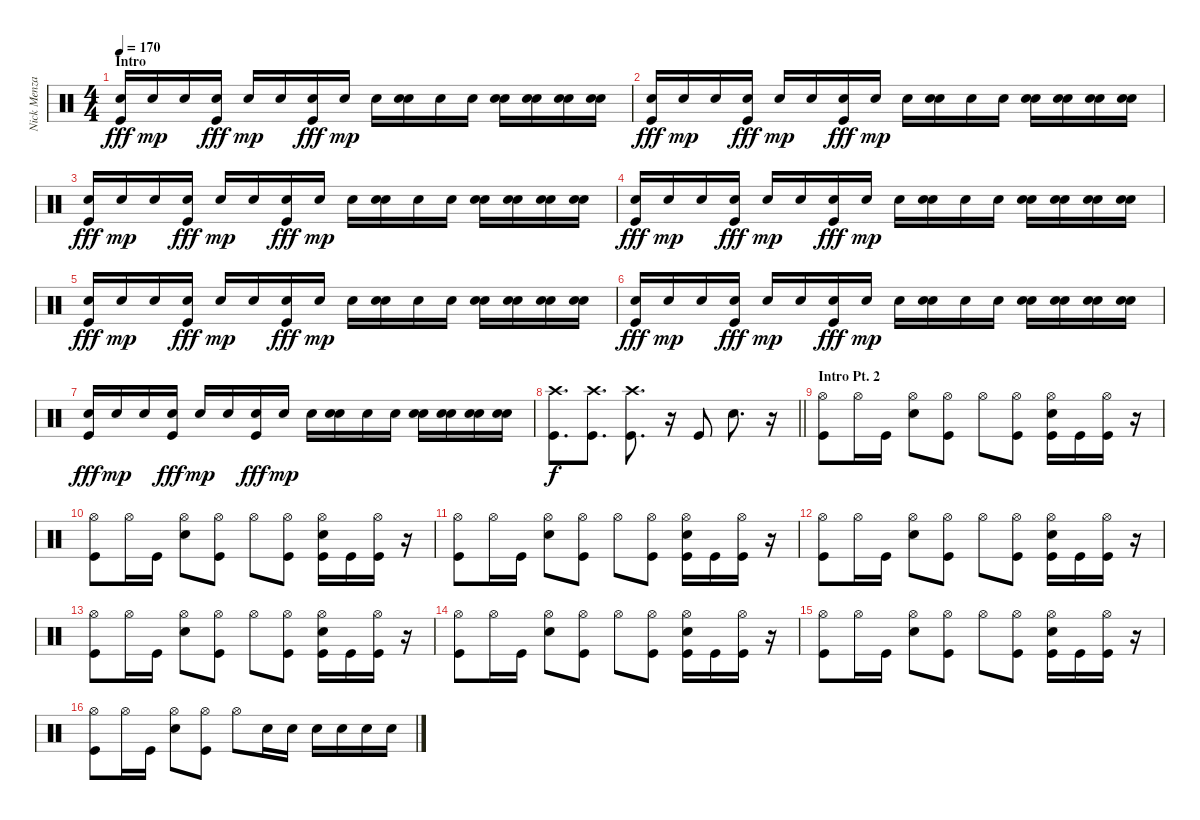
\track ("Nick Menza" "Nick Menza") {instrument percussion}
\staff {score}
\articulation defaults
\ts (4 4)
\section ("" "Intro")
\tempo 170
\clef neutral
\ks c
("Snare (hit) 2" "Kick (hit)").16{dy fff} "Snare (hit) 2".16{dy mp} "Snare (hit) 2".16 ("Snare (hit) 2" "Kick (hit)").16{dy fff} "Snare (hit) 2".16{dy mp} "Snare (hit) 2".16 ("Snare (hit) 2" "Kick (hit)").16{dy fff} "Snare (hit) 2".16{dy mp} "Snare (hit) 2".16 ("Snare (hit) 2" "Snare (hit) 2").16 "Snare (hit) 2".16 "Snare (hit) 2".16 ("Snare (hit) 2" "Snare (hit) 2").16 ("Snare (hit) 2" "Snare (hit) 2").16 ("Snare (hit) 2" "Snare (hit) 2").16 ("Snare (hit) 2" "Snare (hit) 2").16 |
("Snare (hit) 2" "Kick (hit)").16{dy fff} "Snare (hit) 2".16{dy mp} "Snare (hit) 2".16 ("Snare (hit) 2" "Kick (hit)").16{dy fff} "Snare (hit) 2".16{dy mp} "Snare (hit) 2".16 ("Snare (hit) 2" "Kick (hit)").16{dy fff} "Snare (hit) 2".16{dy mp} "Snare (hit) 2".16 ("Snare (hit) 2" "Snare (hit) 2").16 "Snare (hit) 2".16 "Snare (hit) 2".16 ("Snare (hit) 2" "Snare (hit) 2").16 ("Snare (hit) 2" "Snare (hit) 2").16 ("Snare (hit) 2" "Snare (hit) 2").16 ("Snare (hit) 2" "Snare (hit) 2").16 |
("Snare (hit) 2" "Kick (hit)").16{dy fff} "Snare (hit) 2".16{dy mp} "Snare (hit) 2".16 ("Snare (hit) 2" "Kick (hit)").16{dy fff} "Snare (hit) 2".16{dy mp} "Snare (hit) 2".16 ("Snare (hit) 2" "Kick (hit)").16{dy fff} "Snare (hit) 2".16{dy mp} "Snare (hit) 2".16 ("Snare (hit) 2" "Snare (hit) 2").16 "Snare (hit) 2".16 "Snare (hit) 2".16 ("Snare (hit) 2" "Snare (hit) 2").16 ("Snare (hit) 2" "Snare (hit) 2").16 ("Snare (hit) 2" "Snare (hit) 2").16 ("Snare (hit) 2" "Snare (hit) 2").16 |
("Snare (hit) 2" "Kick (hit)").16{dy fff} "Snare (hit) 2".16{dy mp} "Snare (hit) 2".16 ("Snare (hit) 2" "Kick (hit)").16{dy fff} "Snare (hit) 2".16{dy mp} "Snare (hit) 2".16 ("Snare (hit) 2" "Kick (hit)").16{dy fff} "Snare (hit) 2".16{dy mp} "Snare (hit) 2".16 ("Snare (hit) 2" "Snare (hit) 2").16 "Snare (hit) 2".16 "Snare (hit) 2".16 ("Snare (hit) 2" "Snare (hit) 2").16 ("Snare (hit) 2" "Snare (hit) 2").16 ("Snare (hit) 2" "Snare (hit) 2").16 ("Snare (hit) 2" "Snare (hit) 2").16 |
("Snare (hit) 2" "Kick (hit)").16{dy fff} "Snare (hit) 2".16{dy mp} "Snare (hit) 2".16 ("Snare (hit) 2" "Kick (hit)").16{dy fff} "Snare (hit) 2".16{dy mp} "Snare (hit) 2".16 ("Snare (hit) 2" "Kick (hit)").16{dy fff} "Snare (hit) 2".16{dy mp} "Snare (hit) 2".16 ("Snare (hit) 2" "Snare (hit) 2").16 "Snare (hit) 2".16 "Snare (hit) 2".16 ("Snare (hit) 2" "Snare (hit) 2").16 ("Snare (hit) 2" "Snare (hit) 2").16 ("Snare (hit) 2" "Snare (hit) 2").16 ("Snare (hit) 2" "Snare (hit) 2").16 |
("Snare (hit) 2" "Kick (hit)").16{dy fff} "Snare (hit) 2".16{dy mp} "Snare (hit) 2".16 ("Snare (hit) 2" "Kick (hit)").16{dy fff} "Snare (hit) 2".16{dy mp} "Snare (hit) 2".16 ("Snare (hit) 2" "Kick (hit)").16{dy fff} "Snare (hit) 2".16{dy mp} "Snare (hit) 2".16 ("Snare (hit) 2" "Snare (hit) 2").16 "Snare (hit) 2".16 "Snare (hit) 2".16 ("Snare (hit) 2" "Snare (hit) 2").16 ("Snare (hit) 2" "Snare (hit) 2").16 ("Snare (hit) 2" "Snare (hit) 2").16 ("Snare (hit) 2" "Snare (hit) 2").16 |
("Snare (hit) 2" "Kick (hit)").16{dy fff} "Snare (hit) 2".16{dy mp} "Snare (hit) 2".16 ("Snare (hit) 2" "Kick (hit)").16{dy fff} "Snare (hit) 2".16{dy mp} "Snare (hit) 2".16 ("Snare (hit) 2" "Kick (hit)").16{dy fff} "Snare (hit) 2".16{dy mp} "Snare (hit) 2".16 ("Snare (hit) 2" "Snare (hit) 2").16 "Snare (hit) 2".16 "Snare (hit) 2".16 ("Snare (hit) 2" "Snare (hit) 2").16 ("Snare (hit) 2" "Snare (hit) 2").16 ("Snare (hit) 2" "Snare (hit) 2").16 ("Snare (hit) 2" "Snare (hit) 2").16 |
\barLineRight lightlight
("Crash high (hit)" "Kick (hit)").8{d dy f} ("Crash high (hit)" "Kick (hit)").8{d} ("Crash high (hit)" "Kick (hit)").8{d} r.16 "Kick (hit)".8 "Snare (hit) 2".8{d} r.16 |
\section ("" "Intro Pt. 2")
("Hi-Hat (open)" "Kick (hit)").8 "Hi-Hat (open)".16 "Kick (hit)".16 ("Hi-Hat (open)" "Snare (hit) 2").8 ("Hi-Hat (open)" "Kick (hit)").8 "Hi-Hat (open)".8 ("Hi-Hat (open)" "Kick (hit)").8 ("Hi-Hat (open)" "Snare (hit) 2" "Kick (hit)").16 "Kick (hit)".16 ("Hi-Hat (open)" "Kick (hit)").16 r.16 |
("Hi-Hat (open)" "Kick (hit)").8 "Hi-Hat (open)".16 "Kick (hit)".16 ("Hi-Hat (open)" "Snare (hit) 2").8 ("Hi-Hat (open)" "Kick (hit)").8 "Hi-Hat (open)".8 ("Hi-Hat (open)" "Kick (hit)").8 ("Hi-Hat (open)" "Snare (hit) 2" "Kick (hit)").16 "Kick (hit)".16 ("Hi-Hat (open)" "Kick (hit)").16 r.16 |
("Hi-Hat (open)" "Kick (hit)").8 "Hi-Hat (open)".16 "Kick (hit)".16 ("Hi-Hat (open)" "Snare (hit) 2").8 ("Hi-Hat (open)" "Kick (hit)").8 "Hi-Hat (open)".8 ("Hi-Hat (open)" "Kick (hit)").8 ("Hi-Hat (open)" "Snare (hit) 2" "Kick (hit)").16 "Kick (hit)".16 ("Hi-Hat (open)" "Kick (hit)").16 r.16 |
("Hi-Hat (open)" "Kick (hit)").8 "Hi-Hat (open)".16 "Kick (hit)".16 ("Hi-Hat (open)" "Snare (hit) 2").8 ("Hi-Hat (open)" "Kick (hit)").8 "Hi-Hat (open)".8 ("Hi-Hat (open)" "Kick (hit)").8 ("Hi-Hat (open)" "Snare (hit) 2" "Kick (hit)").16 "Kick (hit)".16 ("Hi-Hat (open)" "Kick (hit)").16 r.16 |
("Hi-Hat (open)" "Kick (hit)").8 "Hi-Hat (open)".16 "Kick (hit)".16 ("Hi-Hat (open)" "Snare (hit) 2").8 ("Hi-Hat (open)" "Kick (hit)").8 "Hi-Hat (open)".8 ("Hi-Hat (open)" "Kick (hit)").8 ("Hi-Hat (open)" "Snare (hit) 2" "Kick (hit)").16 "Kick (hit)".16 ("Hi-Hat (open)" "Kick (hit)").16 r.16 |
("Hi-Hat (open)" "Kick (hit)").8 "Hi-Hat (open)".16 "Kick (hit)".16 ("Hi-Hat (open)" "Snare (hit) 2").8 ("Hi-Hat (open)" "Kick (hit)").8 "Hi-Hat (open)".8 ("Hi-Hat (open)" "Kick (hit)").8 ("Hi-Hat (open)" "Snare (hit) 2" "Kick (hit)").16 "Kick (hit)".16 ("Hi-Hat (open)" "Kick (hit)").16 r.16 |
("Hi-Hat (open)" "Kick (hit)").8 "Hi-Hat (open)".16 "Kick (hit)".16 ("Hi-Hat (open)" "Snare (hit) 2").8 ("Hi-Hat (open)" "Kick (hit)").8 "Hi-Hat (open)".8 ("Hi-Hat (open)" "Kick (hit)").8 ("Hi-Hat (open)" "Snare (hit) 2" "Kick (hit)").16 "Kick (hit)".16 ("Hi-Hat (open)" "Kick (hit)").16 r.16 |
("Hi-Hat (open)" "Kick (hit)").8 "Hi-Hat (open)".16 "Kick (hit)".16 ("Hi-Hat (open)" "Snare (hit) 2").8 ("Hi-Hat (open)" "Kick (hit)").8 "Hi-Hat (open)".8 "Snare (hit) 2".16 "Snare (hit) 2".16 "Snare (hit) 2".16 "Snare (hit) 2".16 "Snare (hit) 2".16 "Snare (hit) 2".16
